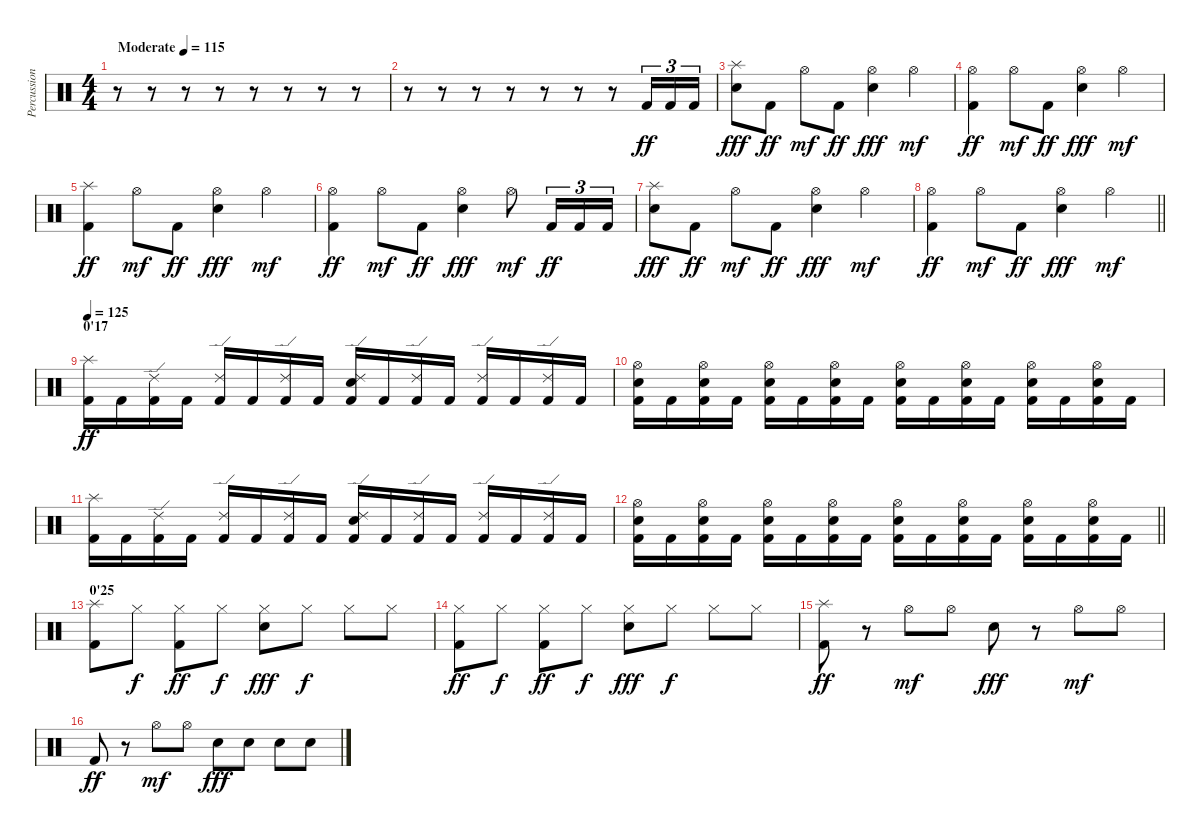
\track ("Percussions" "Percussion") {instrument percussion}
\staff {score}
\articulation defaults
\ts (4 4)
\tempo (115 "Moderate")
\clef neutral
\ks c
r.8{dy ff} r.8 r.8 r.8 r.8 r.8 r.8 r.8 |
r.8 r.8 r.8 r.8 r.8 r.8 r.8 "Kick (hit) 2".16{tu (3 2)} "Kick (hit) 2".16{tu (3 2)} "Kick (hit) 2".16{tu (3 2)} |
("Splash (hit)" "Snare (hit) 2").8{dy fff} "Kick (hit) 2".8{dy ff} "Hi-Hat (open)".8{dy mf} "Kick (hit) 2".8{dy ff} ("Hi-Hat (open)" "Snare (hit) 2").4{dy fff} "Hi-Hat (open)".4{dy mf} |
("Hi-Hat (open)" "Kick (hit) 2").4{dy ff} "Hi-Hat (open)".8{dy mf} "Kick (hit) 2".8{dy ff} ("Hi-Hat (open)" "Snare (hit) 2").4{dy fff} "Hi-Hat (open)".4{dy mf} |
("Splash (hit)" "Kick (hit) 2").4{dy ff} "Hi-Hat (open)".8{dy mf} "Kick (hit) 2".8{dy ff} ("Hi-Hat (open)" "Snare (hit) 2").4{dy fff} "Hi-Hat (open)".4{dy mf} |
("Hi-Hat (open)" "Kick (hit) 2").4{dy ff} "Hi-Hat (open)".8{dy mf} "Kick (hit) 2".8{dy ff} ("Hi-Hat (open)" "Snare (hit) 2").4{dy fff} "Hi-Hat (open)".8{dy mf} "Kick (hit) 2".16{tu (3 2) dy ff} "Kick (hit) 2".16{tu (3 2)} "Kick (hit) 2".16{tu (3 2)} |
("Splash (hit)" "Snare (hit) 2").8{dy fff} "Kick (hit) 2".8{dy ff} "Hi-Hat (open)".8{dy mf} "Kick (hit) 2".8{dy ff} ("Hi-Hat (open)" "Snare (hit) 2").4{dy fff} "Hi-Hat (open)".4{dy mf} |
\barLineRight lightlight
("Hi-Hat (open)" "Kick (hit) 2").4{dy ff} "Hi-Hat (open)".8{dy mf} "Kick (hit) 2".8{dy ff} ("Hi-Hat (open)" "Snare (hit) 2").4{dy fff} "Hi-Hat (open)".4{dy mf} |
\section ("" "0'17")
\tempo 125
("Splash (hit)" "Kick (hit) 2").16{dy ff} "Kick (hit) 2".16 ("Ride (edge) 2" "Kick (hit) 2").16 "Kick (hit) 2".16 ("Ride (edge) 2" "Kick (hit) 2").16 "Kick (hit) 2".16 ("Ride (edge) 2" "Kick (hit) 2").16 "Kick (hit) 2".16 ("Ride (edge) 2" "Snare (hit) 2" "Kick (hit) 2").16 "Kick (hit) 2".16 ("Ride (edge) 2" "Kick (hit) 2").16 "Kick (hit) 2".16 ("Ride (edge) 2" "Kick (hit) 2").16 "Kick (hit) 2".16 ("Ride (edge) 2" "Kick (hit) 2").16 "Kick (hit) 2".16 |
("Hi-Hat (open)" "Snare (hit) 2" "Kick (hit) 2").16 "Kick (hit) 2".16 ("Hi-Hat (open)" "Snare (hit) 2" "Kick (hit) 2").16 "Kick (hit) 2".16 ("Hi-Hat (open)" "Snare (hit) 2" "Kick (hit) 2").16 "Kick (hit) 2".16 ("Hi-Hat (open)" "Snare (hit) 2" "Kick (hit) 2").16 "Kick (hit) 2".16 ("Hi-Hat (open)" "Snare (hit) 2" "Kick (hit) 2").16 "Kick (hit) 2".16 ("Hi-Hat (open)" "Snare (hit) 2" "Kick (hit) 2").16 "Kick (hit) 2".16 ("Hi-Hat (open)" "Snare (hit) 2" "Kick (hit) 2").16 "Kick (hit) 2".16 ("Hi-Hat (open)" "Snare (hit) 2" "Kick (hit) 2").16 "Kick (hit) 2".16 |
("Splash (hit)" "Kick (hit) 2").16 "Kick (hit) 2".16 ("Ride (edge) 2" "Kick (hit) 2").16 "Kick (hit) 2".16 ("Ride (edge) 2" "Kick (hit) 2").16 "Kick (hit) 2".16 ("Ride (edge) 2" "Kick (hit) 2").16 "Kick (hit) 2".16 ("Ride (edge) 2" "Snare (hit) 2" "Kick (hit) 2").16 "Kick (hit) 2".16 ("Ride (edge) 2" "Kick (hit) 2").16 "Kick (hit) 2".16 ("Ride (edge) 2" "Kick (hit) 2").16 "Kick (hit) 2".16 ("Ride (edge) 2" "Kick (hit) 2").16 "Kick (hit) 2".16 |
\barLineRight lightlight
("Hi-Hat (open)" "Snare (hit) 2" "Kick (hit) 2").16 "Kick (hit) 2".16 ("Hi-Hat (open)" "Snare (hit) 2" "Kick (hit) 2").16 "Kick (hit) 2".16 ("Hi-Hat (open)" "Snare (hit) 2" "Kick (hit) 2").16 "Kick (hit) 2".16 ("Hi-Hat (open)" "Snare (hit) 2" "Kick (hit) 2").16 "Kick (hit) 2".16 ("Hi-Hat (open)" "Snare (hit) 2" "Kick (hit) 2").16 "Kick (hit) 2".16 ("Hi-Hat (open)" "Snare (hit) 2" "Kick (hit) 2").16 "Kick (hit) 2".16 ("Hi-Hat (open)" "Snare (hit) 2" "Kick (hit) 2").16 "Kick (hit) 2".16 ("Hi-Hat (open)" "Snare (hit) 2" "Kick (hit) 2").16 "Kick (hit) 2".16 |
\section ("" "0'25")
("Splash (hit)" "Kick (hit) 2").8 "Hi-Hat (closed)".8{dy f} ("Hi-Hat (closed)" "Kick (hit) 2").8{dy ff} "Hi-Hat (closed)".8{dy f} ("Hi-Hat (closed)" "Snare (hit) 2").8{dy fff} "Hi-Hat (closed)".8{dy f} "Hi-Hat (closed)".8 "Hi-Hat (closed)".8 |
("Hi-Hat (closed)" "Kick (hit) 2").8{dy ff} "Hi-Hat (closed)".8{dy f} ("Hi-Hat (closed)" "Kick (hit) 2").8{dy ff} "Hi-Hat (closed)".8{dy f} ("Hi-Hat (closed)" "Snare (hit) 2").8{dy fff} "Hi-Hat (closed)".8{dy f} "Hi-Hat (closed)".8 "Hi-Hat (closed)".8 |
("Splash (hit)" "Kick (hit) 2").8{dy ff} r.8 "Hi-Hat (open)".8{dy mf} "Hi-Hat (open)".8 "Snare (hit) 2".8{dy fff} r.8 "Hi-Hat (open)".8{dy mf} "Hi-Hat (open)".8 |
"Kick (hit) 2".8{dy ff} r.8 "Hi-Hat (open)".8{dy mf} "Hi-Hat (open)".8 "Snare (hit) 2".8{dy fff} "Snare (hit) 2".8 "Snare (hit) 2".8 "Snare (hit) 2".8
